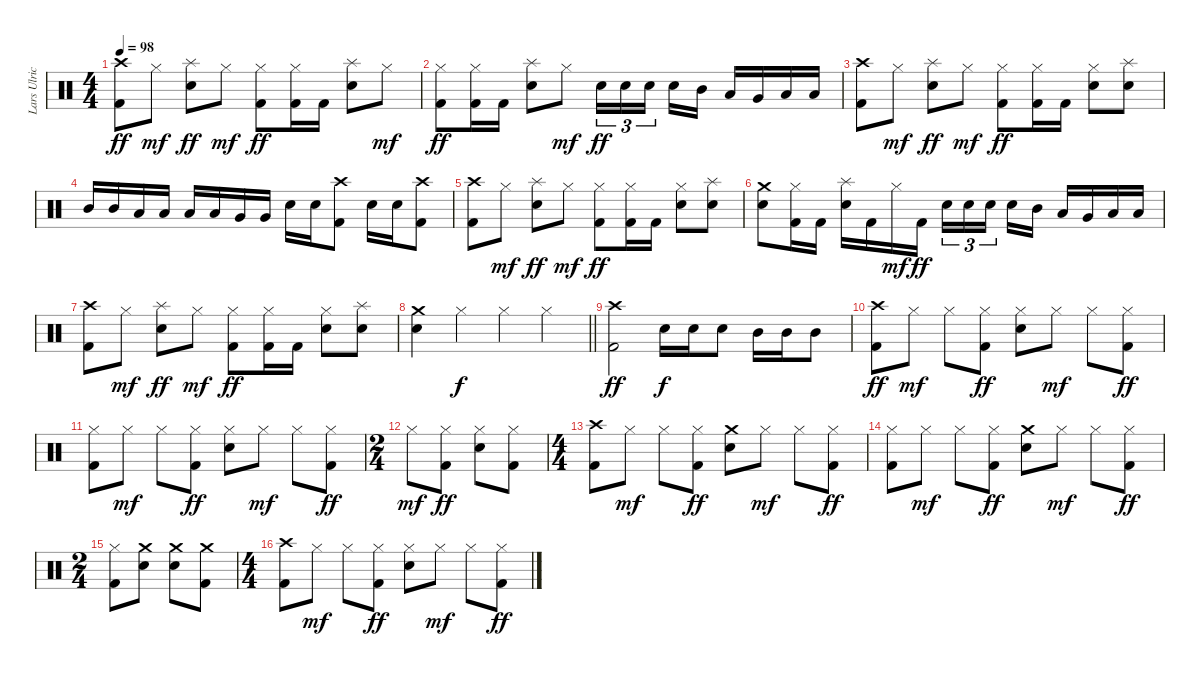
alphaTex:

\track ("Lars Ulrich" "Lars Ulric") {instrument percussion}
\staff {score}
\articulation defaults
\ts (4 4)
\tempo 98
\clef neutral
\ks c
("Crash high (hit)" "Kick (hit) 2").8{dy ff} "Hi-Hat (closed)".8{dy mf} ("Splash (hit)" "Snare (hit) 2").8{dy ff} "Hi-Hat (closed)".8{dy mf} ("Hi-Hat (closed)" "Kick (hit) 2").8{dy ff} ("Hi-Hat (closed)" "Kick (hit) 2").16 "Kick (hit) 2".16 ("Splash (hit)" "Snare (hit) 2").8 "Hi-Hat (closed)".8{dy mf} |
("Hi-Hat (closed)" "Kick (hit) 2").8{dy ff} ("Hi-Hat (closed)" "Kick (hit) 2").16 "Kick (hit) 2".16 ("Splash (hit)" "Snare (hit) 2").8 "Hi-Hat (closed)".8{dy mf} "Snare (hit) 2".16{tu (3 2) dy ff} "Snare (hit) 2".16{tu (3 2)} "Snare (hit) 2".16{tu (3 2) beam splitsecondary} "Snare (hit) 2".16 "Mid Tom (hit)".16 "Low Tom (hit)".16 "Very Low Tom (hit)".16 "Low Floor Tom (hit)".16 "Low Floor Tom (hit)".16 |
("Crash high (hit)" "Kick (hit) 2").8 "Hi-Hat (closed)".8{dy mf} ("Splash (hit)" "Snare (hit) 2").8{dy ff} "Hi-Hat (closed)".8{dy mf} ("Hi-Hat (closed)" "Kick (hit) 2").8{dy ff} ("Hi-Hat (closed)" "Kick (hit) 2").16 "Kick (hit) 2".16 ("Hi-Hat (closed)" "Snare (hit) 2").8 ("Splash (hit)" "Snare (hit) 2").8 |
"Mid Tom (hit)".16 "Mid Tom (hit)".16 "Low Tom (hit)".16 "Low Tom (hit)".16 "Low Tom (hit)".16 "Low Tom (hit)".16 "Very Low Tom (hit)".16 "Very Low Tom (hit)".16 "Snare (hit) 2".16 "Snare (hit) 2".16 ("Crash high (hit)" "Kick (hit) 2").8 "Snare (hit) 2".16 "Snare (hit) 2".16 ("Crash high (hit)" "Kick (hit) 2").8 |
("Crash high (hit)" "Kick (hit) 2").8 "Hi-Hat (closed)".8{dy mf} ("Splash (hit)" "Snare (hit) 2").8{dy ff} "Hi-Hat (closed)".8{dy mf} ("Hi-Hat (closed)" "Kick (hit) 2").8{dy ff} ("Hi-Hat (closed)" "Kick (hit) 2").16 "Kick (hit) 2".16 ("Hi-Hat (closed)" "Snare (hit) 2").8 ("Splash (hit)" "Snare (hit) 2").8 |
("Crash medium (hit)" "Snare (hit) 2").8 ("Hi-Hat (closed)" "Kick (hit) 2").16 "Kick (hit) 2".16 ("Splash (hit)" "Snare (hit) 2").16 "Kick (hit) 2".16 "Hi-Hat (closed)".16{dy mf} "Kick (hit) 2".16{dy ff} "Snare (hit) 2".16{tu (3 2)} "Snare (hit) 2".16{tu (3 2)} "Snare (hit) 2".16{tu (3 2) beam splitsecondary} "Snare (hit) 2".16 "Mid Tom (hit)".16 "Low Tom (hit)".16 "Very Low Tom (hit)".16 "Low Floor Tom (hit)".16 "Low Floor Tom (hit)".16 |
("Crash high (hit)" "Kick (hit) 2").8 "Hi-Hat (closed)".8{dy mf} ("Splash (hit)" "Snare (hit) 2").8{dy ff} "Hi-Hat (closed)".8{dy mf} ("Hi-Hat (closed)" "Kick (hit) 2").8{dy ff} ("Hi-Hat (closed)" "Kick (hit) 2").16 "Kick (hit) 2".16 ("Hi-Hat (closed)" "Snare (hit) 2").8 ("Splash (hit)" "Snare (hit) 2").8 |
\barLineRight lightlight
("Crash medium (hit)" "Snare (hit) 2").4 "Hi-Hat (closed)".4{dy f} "Hi-Hat (closed)".4 "Hi-Hat (closed)".4 |
("Crash high (hit)" "Kick (hit) 2").2{dy ff} "Snare (hit) 2".16{dy f} "Snare (hit) 2".16 "Snare (hit) 2".8 "Mid Tom (hit)".16 "Mid Tom (hit)".16 "Mid Tom (hit)".8 |
("Crash high (hit)" "Kick (hit) 2").8{dy ff} "Hi-Hat (closed)".8{dy mf} "Hi-Hat (closed)".8 ("Hi-Hat (closed)" "Kick (hit) 2").8{dy ff} ("Hi-Hat (closed)" "Snare (hit) 2").8 "Hi-Hat (closed)".8{dy mf} "Hi-Hat (closed)".8 ("Hi-Hat (closed)" "Kick (hit) 2").8{dy ff} |
("Hi-Hat (closed)" "Kick (hit) 2").8 "Hi-Hat (closed)".8{dy mf} "Hi-Hat (closed)".8 ("Hi-Hat (closed)" "Kick (hit) 2").8{dy ff} ("Hi-Hat (closed)" "Snare (hit) 2").8 "Hi-Hat (closed)".8{dy mf} "Hi-Hat (closed)".8 ("Hi-Hat (closed)" "Kick (hit) 2").8{dy ff} |
\ts (2 4)
"Hi-Hat (closed)".8{dy mf} ("Hi-Hat (closed)" "Kick (hit) 2").8{dy ff} ("Hi-Hat (closed)" "Snare (hit) 2").8 ("Hi-Hat (closed)" "Kick (hit) 2").8 |
\ts (4 4)
("Crash high (hit)" "Kick (hit) 2").8 "Hi-Hat (closed)".8{dy mf} "Hi-Hat (closed)".8 ("Hi-Hat (closed)" "Kick (hit) 2").8{dy ff} ("Crash medium (hit)" "Snare (hit) 2").8 "Hi-Hat (closed)".8{dy mf} "Hi-Hat (closed)".8 ("Hi-Hat (closed)" "Kick (hit) 2").8{dy ff} |
("Hi-Hat (closed)" "Kick (hit) 2").8 "Hi-Hat (closed)".8{dy mf} "Hi-Hat (closed)".8 ("Hi-Hat (closed)" "Kick (hit) 2").8{dy ff} ("Crash medium (hit)" "Snare (hit) 2").8 "Hi-Hat (closed)".8{dy mf} "Hi-Hat (closed)".8 ("Hi-Hat (closed)" "Kick (hit) 2").8{dy ff} |
\ts (2 4)
("Hi-Hat (closed)" "Kick (hit) 2").8 ("Crash medium (hit)" "Snare (hit) 2").8 ("Crash medium (hit)" "Snare (hit) 2").8 ("Crash medium (hit)" "Kick (hit) 2").8 |
\ts (4 4)
("Crash high (hit)" "Kick (hit) 2").8 "Hi-Hat (closed)".8{dy mf} "Hi-Hat (closed)".8 ("Hi-Hat (closed)" "Kick (hit) 2").8{dy ff} ("Hi-Hat (closed)" "Snare (hit) 2").8 "Hi-Hat (closed)".8{dy mf} "Hi-Hat (closed)".8 ("Hi-Hat (closed)" "Kick (hit) 2").8{dy ff}
